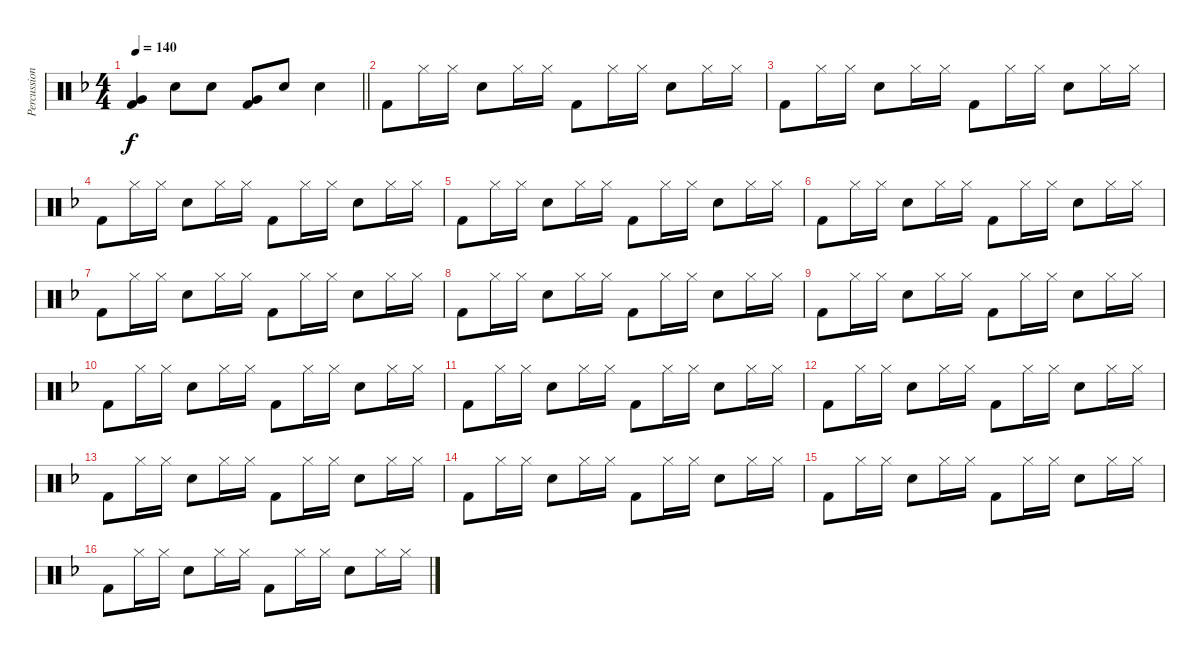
\track ("Percussion" "Percussion") {instrument percussion}
\staff {score}
\articulation defaults
\ts (4 4)
\tempo 140
\clef neutral
\barLineRight lightlight
\ks dminor
("Very Low Tom (hit)" "Kick (hit) 2").4{dy f} "Snare (hit) 2".8 "Snare (hit) 2".8 ("Very Low Tom (hit)" "Kick (hit) 2").8 "Snare (hit) 2".8 "Snare (hit) 2".4 |
"Kick (hit) 2".8 "Hi-Hat (closed)".16 "Hi-Hat (closed)".16 "Snare (hit) 2".8 "Hi-Hat (closed)".16 "Hi-Hat (closed)".16 "Kick (hit) 2".8 "Hi-Hat (closed)".16 "Hi-Hat (closed)".16 "Snare (hit) 2".8 "Hi-Hat (closed)".16 "Hi-Hat (closed)".16 |
"Kick (hit) 2".8 "Hi-Hat (closed)".16 "Hi-Hat (closed)".16 "Snare (hit) 2".8 "Hi-Hat (closed)".16 "Hi-Hat (closed)".16 "Kick (hit) 2".8 "Hi-Hat (closed)".16 "Hi-Hat (closed)".16 "Snare (hit) 2".8 "Hi-Hat (closed)".16 "Hi-Hat (closed)".16 |
"Kick (hit) 2".8 "Hi-Hat (closed)".16 "Hi-Hat (closed)".16 "Snare (hit) 2".8 "Hi-Hat (closed)".16 "Hi-Hat (closed)".16 "Kick (hit) 2".8 "Hi-Hat (closed)".16 "Hi-Hat (closed)".16 "Snare (hit) 2".8 "Hi-Hat (closed)".16 "Hi-Hat (closed)".16 |
"Kick (hit) 2".8 "Hi-Hat (closed)".16 "Hi-Hat (closed)".16 "Snare (hit) 2".8 "Hi-Hat (closed)".16 "Hi-Hat (closed)".16 "Kick (hit) 2".8 "Hi-Hat (closed)".16 "Hi-Hat (closed)".16 "Snare (hit) 2".8 "Hi-Hat (closed)".16 "Hi-Hat (closed)".16 |
"Kick (hit) 2".8 "Hi-Hat (closed)".16 "Hi-Hat (closed)".16 "Snare (hit) 2".8 "Hi-Hat (closed)".16 "Hi-Hat (closed)".16 "Kick (hit) 2".8 "Hi-Hat (closed)".16 "Hi-Hat (closed)".16 "Snare (hit) 2".8 "Hi-Hat (closed)".16 "Hi-Hat (closed)".16 |
"Kick (hit) 2".8 "Hi-Hat (closed)".16 "Hi-Hat (closed)".16 "Snare (hit) 2".8 "Hi-Hat (closed)".16 "Hi-Hat (closed)".16 "Kick (hit) 2".8 "Hi-Hat (closed)".16 "Hi-Hat (closed)".16 "Snare (hit) 2".8 "Hi-Hat (closed)".16 "Hi-Hat (closed)".16 |
"Kick (hit) 2".8 "Hi-Hat (closed)".16 "Hi-Hat (closed)".16 "Snare (hit) 2".8 "Hi-Hat (closed)".16 "Hi-Hat (closed)".16 "Kick (hit) 2".8 "Hi-Hat (closed)".16 "Hi-Hat (closed)".16 "Snare (hit) 2".8 "Hi-Hat (closed)".16 "Hi-Hat (closed)".16 |
"Kick (hit) 2".8 "Hi-Hat (closed)".16 "Hi-Hat (closed)".16 "Snare (hit) 2".8 "Hi-Hat (closed)".16 "Hi-Hat (closed)".16 "Kick (hit) 2".8 "Hi-Hat (closed)".16 "Hi-Hat (closed)".16 "Snare (hit) 2".8 "Hi-Hat (closed)".16 "Hi-Hat (closed)".16 |
"Kick (hit) 2".8 "Hi-Hat (closed)".16 "Hi-Hat (closed)".16 "Snare (hit) 2".8 "Hi-Hat (closed)".16 "Hi-Hat (closed)".16 "Kick (hit) 2".8 "Hi-Hat (closed)".16 "Hi-Hat (closed)".16 "Snare (hit) 2".8 "Hi-Hat (closed)".16 "Hi-Hat (closed)".16 |
"Kick (hit) 2".8 "Hi-Hat (closed)".16 "Hi-Hat (closed)".16 "Snare (hit) 2".8 "Hi-Hat (closed)".16 "Hi-Hat (closed)".16 "Kick (hit) 2".8 "Hi-Hat (closed)".16 "Hi-Hat (closed)".16 "Snare (hit) 2".8 "Hi-Hat (closed)".16 "Hi-Hat (closed)".16 |
"Kick (hit) 2".8 "Hi-Hat (closed)".16 "Hi-Hat (closed)".16 "Snare (hit) 2".8 "Hi-Hat (closed)".16 "Hi-Hat (closed)".16 "Kick (hit) 2".8 "Hi-Hat (closed)".16 "Hi-Hat (closed)".16 "Snare (hit) 2".8 "Hi-Hat (closed)".16 "Hi-Hat (closed)".16 |
"Kick (hit) 2".8 "Hi-Hat (closed)".16 "Hi-Hat (closed)".16 "Snare (hit) 2".8 "Hi-Hat (closed)".16 "Hi-Hat (closed)".16 "Kick (hit) 2".8 "Hi-Hat (closed)".16 "Hi-Hat (closed)".16 "Snare (hit) 2".8 "Hi-Hat (closed)".16 "Hi-Hat (closed)".16 |
"Kick (hit) 2".8 "Hi-Hat (closed)".16 "Hi-Hat (closed)".16 "Snare (hit) 2".8 "Hi-Hat (closed)".16 "Hi-Hat (closed)".16 "Kick (hit) 2".8 "Hi-Hat (closed)".16 "Hi-Hat (closed)".16 "Snare (hit) 2".8 "Hi-Hat (closed)".16 "Hi-Hat (closed)".16 |
"Kick (hit) 2".8 "Hi-Hat (closed)".16 "Hi-Hat (closed)".16 "Snare (hit) 2".8 "Hi-Hat (closed)".16 "Hi-Hat (closed)".16 "Kick (hit) 2".8 "Hi-Hat (closed)".16 "Hi-Hat (closed)".16 "Snare (hit) 2".8 "Hi-Hat (closed)".16 "Hi-Hat (closed)".16 |
"Kick (hit) 2".8 "Hi-Hat (closed)".16 "Hi-Hat (closed)".16 "Snare (hit) 2".8 "Hi-Hat (closed)".16 "Hi-Hat (closed)".16 "Kick (hit) 2".8 "Hi-Hat (closed)".16 "Hi-Hat (closed)".16 "Snare (hit) 2".8 "Hi-Hat (closed)".16 "Hi-Hat (closed)".16
